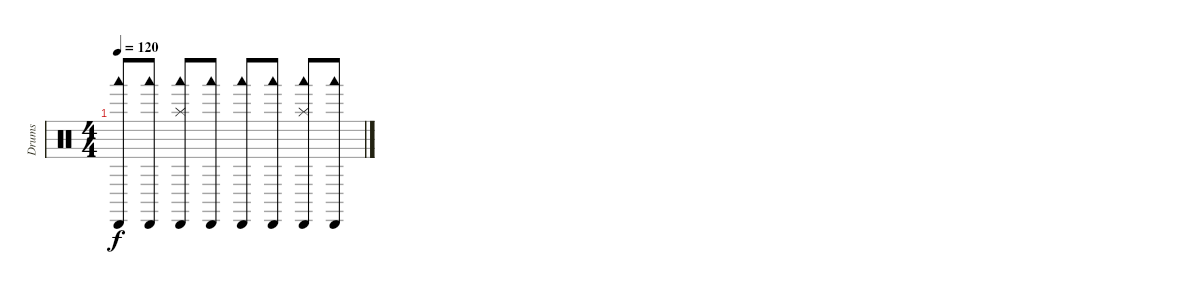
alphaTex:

\track ("Drums" "Drums") {instrument percussion}
\staff {score}
\articulation defaults
\ts (4 4)
\tempo 120
\clef neutral
\ks c
("Woodblock low (hit)" "Cabasa (hit)").8{dy f} ("Woodblock low (hit)" "Cabasa (hit)").8 ("Woodblock low (hit)" "Splash (hit)" "Cabasa (hit)").8 ("Woodblock low (hit)" "Cabasa (hit)").8 ("Woodblock low (hit)" "Cabasa (hit)").8 ("Woodblock low (hit)" "Cabasa (hit)").8 ("Woodblock low (hit)" "Splash (hit)" "Cabasa (hit)").8 ("Woodblock low (hit)" "Cabasa (hit)").8
